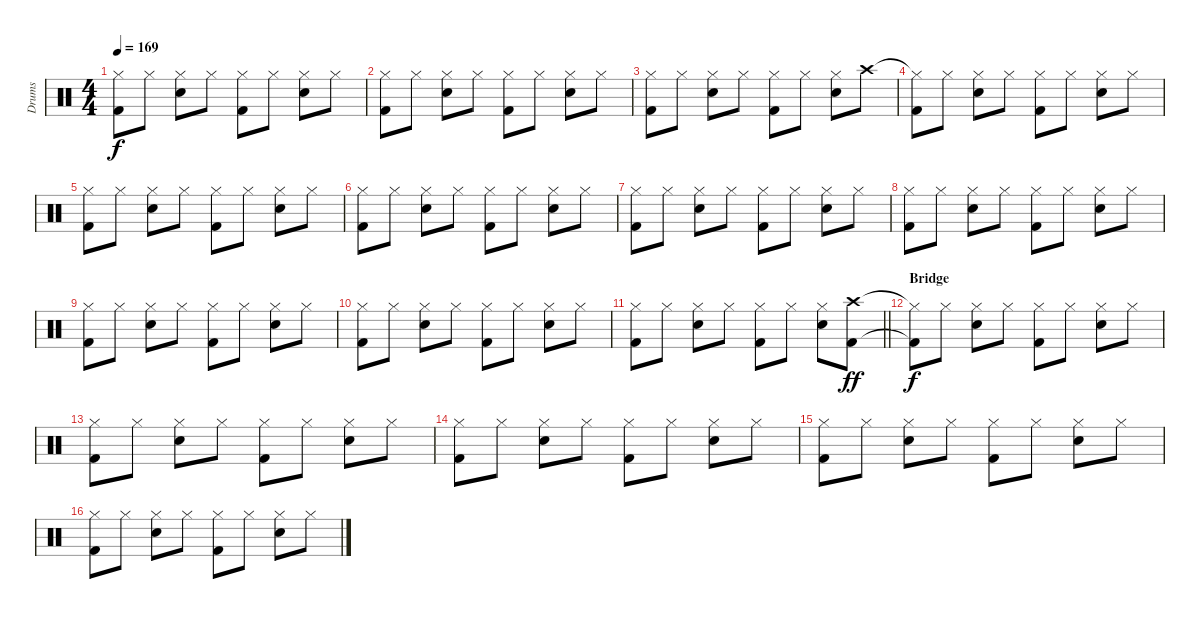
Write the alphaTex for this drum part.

\track ("Drums" "Drums") {instrument percussion}
\staff {score}
\articulation defaults
\ts (4 4)
\tempo 169
\clef neutral
\ks c
("Hi-Hat (closed)" "Kick (hit) 2").8{dy f} "Hi-Hat (closed)".8 ("Hi-Hat (closed)" "Snare (hit) 2").8 "Hi-Hat (closed)".8 ("Hi-Hat (closed)" "Kick (hit) 2").8 "Hi-Hat (closed)".8 ("Hi-Hat (closed)" "Snare (hit) 2").8 "Hi-Hat (closed)".8 |
("Hi-Hat (closed)" "Kick (hit) 2").8 "Hi-Hat (closed)".8 ("Hi-Hat (closed)" "Snare (hit) 2").8 "Hi-Hat (closed)".8 ("Hi-Hat (closed)" "Kick (hit) 2").8 "Hi-Hat (closed)".8 ("Hi-Hat (closed)" "Snare (hit) 2").8 "Hi-Hat (closed)".8 |
("Hi-Hat (closed)" "Kick (hit) 2").8 "Hi-Hat (closed)".8 ("Hi-Hat (closed)" "Snare (hit) 2").8 "Hi-Hat (closed)".8 ("Hi-Hat (closed)" "Kick (hit) 2").8 "Hi-Hat (closed)".8 ("Hi-Hat (closed)" "Snare (hit) 2").8 "Crash high (hit)".8 |
("Hi-Hat (closed)"{t} "Kick (hit) 2").8 "Hi-Hat (closed)".8 ("Hi-Hat (closed)" "Snare (hit) 2").8 "Hi-Hat (closed)".8 ("Hi-Hat (closed)" "Kick (hit) 2").8 "Hi-Hat (closed)".8 ("Hi-Hat (closed)" "Snare (hit) 2").8 "Hi-Hat (closed)".8 |
("Hi-Hat (closed)" "Kick (hit) 2").8 "Hi-Hat (closed)".8 ("Hi-Hat (closed)" "Snare (hit) 2").8 "Hi-Hat (closed)".8 ("Hi-Hat (closed)" "Kick (hit) 2").8 "Hi-Hat (closed)".8 ("Hi-Hat (closed)" "Snare (hit) 2").8 "Hi-Hat (closed)".8 |
("Hi-Hat (closed)" "Kick (hit) 2").8 "Hi-Hat (closed)".8 ("Hi-Hat (closed)" "Snare (hit) 2").8 "Hi-Hat (closed)".8 ("Hi-Hat (closed)" "Kick (hit) 2").8 "Hi-Hat (closed)".8 ("Hi-Hat (closed)" "Snare (hit) 2").8 "Hi-Hat (closed)".8 |
("Hi-Hat (closed)" "Kick (hit) 2").8 "Hi-Hat (closed)".8 ("Hi-Hat (closed)" "Snare (hit) 2").8 "Hi-Hat (closed)".8 ("Hi-Hat (closed)" "Kick (hit) 2").8 "Hi-Hat (closed)".8 ("Hi-Hat (closed)" "Snare (hit) 2").8 "Hi-Hat (closed)".8 |
("Hi-Hat (closed)" "Kick (hit) 2").8 "Hi-Hat (closed)".8 ("Hi-Hat (closed)" "Snare (hit) 2").8 "Hi-Hat (closed)".8 ("Hi-Hat (closed)" "Kick (hit) 2").8 "Hi-Hat (closed)".8 ("Hi-Hat (closed)" "Snare (hit) 2").8 "Hi-Hat (closed)".8 |
("Hi-Hat (closed)" "Kick (hit) 2").8 "Hi-Hat (closed)".8 ("Hi-Hat (closed)" "Snare (hit) 2").8 "Hi-Hat (closed)".8 ("Hi-Hat (closed)" "Kick (hit) 2").8 "Hi-Hat (closed)".8 ("Hi-Hat (closed)" "Snare (hit) 2").8 "Hi-Hat (closed)".8 |
("Hi-Hat (closed)" "Kick (hit) 2").8 "Hi-Hat (closed)".8 ("Hi-Hat (closed)" "Snare (hit) 2").8 "Hi-Hat (closed)".8 ("Hi-Hat (closed)" "Kick (hit) 2").8 "Hi-Hat (closed)".8 ("Hi-Hat (closed)" "Snare (hit) 2").8 "Hi-Hat (closed)".8 |
\barLineRight lightlight
("Hi-Hat (closed)" "Kick (hit) 2").8 "Hi-Hat (closed)".8 ("Hi-Hat (closed)" "Snare (hit) 2").8 "Hi-Hat (closed)".8 ("Hi-Hat (closed)" "Kick (hit) 2").8 "Hi-Hat (closed)".8 ("Hi-Hat (closed)" "Snare (hit) 2").8 ("Crash high (hit)" "Kick (hit) 2").8{dy ff} |
\section ("" "Bridge")
("Hi-Hat (closed)"{t} "Kick (hit) 2"{t}).8{dy f} "Hi-Hat (closed)".8 ("Hi-Hat (closed)" "Snare (hit) 2").8 "Hi-Hat (closed)".8 ("Hi-Hat (closed)" "Kick (hit) 2").8 "Hi-Hat (closed)".8 ("Hi-Hat (closed)" "Snare (hit) 2").8 "Hi-Hat (closed)".8 |
("Hi-Hat (closed)" "Kick (hit) 2").8 "Hi-Hat (closed)".8 ("Hi-Hat (closed)" "Snare (hit) 2").8 "Hi-Hat (closed)".8 ("Hi-Hat (closed)" "Kick (hit) 2").8 "Hi-Hat (closed)".8 ("Hi-Hat (closed)" "Snare (hit) 2").8 "Hi-Hat (closed)".8 |
("Hi-Hat (closed)" "Kick (hit) 2").8 "Hi-Hat (closed)".8 ("Hi-Hat (closed)" "Snare (hit) 2").8 "Hi-Hat (closed)".8 ("Hi-Hat (closed)" "Kick (hit) 2").8 "Hi-Hat (closed)".8 ("Hi-Hat (closed)" "Snare (hit) 2").8 "Hi-Hat (closed)".8 |
("Hi-Hat (closed)" "Kick (hit) 2").8 "Hi-Hat (closed)".8 ("Hi-Hat (closed)" "Snare (hit) 2").8 "Hi-Hat (closed)".8 ("Hi-Hat (closed)" "Kick (hit) 2").8 "Hi-Hat (closed)".8 ("Hi-Hat (closed)" "Snare (hit) 2").8 "Hi-Hat (closed)".8 |
("Hi-Hat (closed)" "Kick (hit) 2").8 "Hi-Hat (closed)".8 ("Hi-Hat (closed)" "Snare (hit) 2").8 "Hi-Hat (closed)".8 ("Hi-Hat (closed)" "Kick (hit) 2").8 "Hi-Hat (closed)".8 ("Hi-Hat (closed)" "Snare (hit) 2").8 "Hi-Hat (closed)".8
